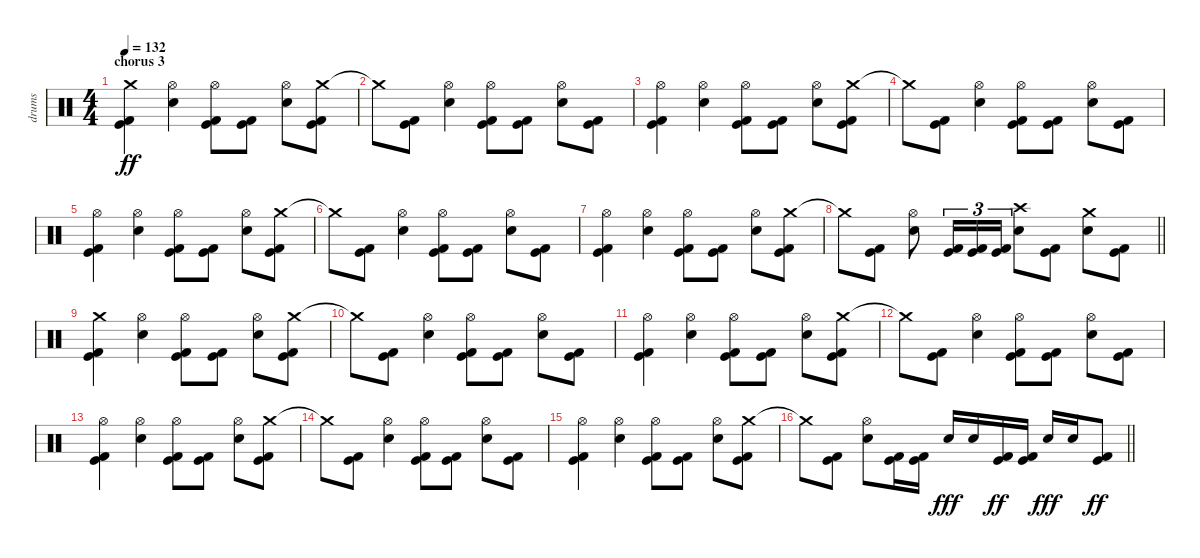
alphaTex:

\track ("drums" "drums") {instrument percussion}
\staff {score}
\articulation defaults
\ts (4 4)
\section ("" "chorus 3")
\tempo 132
\clef neutral
\ks c
("Crash medium (hit)" "Kick (hit)" "Kick (hit) 2").4{dy ff} ("Electric Snare (hit)" "Hi-Hat (open)").4 ("Hi-Hat (open)" "Kick (hit)" "Kick (hit) 2").8 ("Kick (hit)" "Kick (hit) 2").8 ("Electric Snare (hit)" "Hi-Hat (open)").8 ("Crash medium (hit)" "Kick (hit)" "Kick (hit) 2").8 |
"Crash medium (hit)"{t}.8 ("Kick (hit)" "Kick (hit) 2").8 ("Electric Snare (hit)" "Hi-Hat (open)").4 ("Hi-Hat (open)" "Kick (hit)" "Kick (hit) 2").8 ("Kick (hit)" "Kick (hit) 2").8 ("Electric Snare (hit)" "Hi-Hat (open)").8 ("Kick (hit)" "Kick (hit) 2").8 |
("Hi-Hat (open)" "Kick (hit)" "Kick (hit) 2").4 ("Electric Snare (hit)" "Hi-Hat (open)").4 ("Hi-Hat (open)" "Kick (hit)" "Kick (hit) 2").8 ("Kick (hit)" "Kick (hit) 2").8 ("Electric Snare (hit)" "Hi-Hat (open)").8 ("Crash medium (hit)" "Kick (hit)" "Kick (hit) 2").8 |
"Crash medium (hit)"{t}.8 ("Kick (hit)" "Kick (hit) 2").8 ("Electric Snare (hit)" "Hi-Hat (open)").4 ("Hi-Hat (open)" "Kick (hit)" "Kick (hit) 2").8 ("Kick (hit)" "Kick (hit) 2").8 ("Electric Snare (hit)" "Hi-Hat (open)").8 ("Kick (hit)" "Kick (hit) 2").8 |
("Hi-Hat (open)" "Kick (hit)" "Kick (hit) 2").4 ("Electric Snare (hit)" "Hi-Hat (open)").4 ("Hi-Hat (open)" "Kick (hit)" "Kick (hit) 2").8 ("Kick (hit)" "Kick (hit) 2").8 ("Electric Snare (hit)" "Hi-Hat (open)").8 ("Crash medium (hit)" "Kick (hit)" "Kick (hit) 2").8 |
"Crash medium (hit)"{t}.8 ("Kick (hit)" "Kick (hit) 2").8 ("Electric Snare (hit)" "Hi-Hat (open)").4 ("Hi-Hat (open)" "Kick (hit)" "Kick (hit) 2").8 ("Kick (hit)" "Kick (hit) 2").8 ("Electric Snare (hit)" "Hi-Hat (open)").8 ("Kick (hit)" "Kick (hit) 2").8 |
("Hi-Hat (open)" "Kick (hit)" "Kick (hit) 2").4 ("Electric Snare (hit)" "Hi-Hat (open)").4 ("Hi-Hat (open)" "Kick (hit)" "Kick (hit) 2").8 ("Kick (hit)" "Kick (hit) 2").8 ("Electric Snare (hit)" "Hi-Hat (open)").8 ("Crash medium (hit)" "Kick (hit)" "Kick (hit) 2").8 |
\barLineRight lightlight "Crash medium (hit)"{t}.8
("Kick (hit)" "Kick (hit) 2").8 ("Electric Snare (hit)" "Hi-Hat (open)").8 ("Kick (hit)" "Kick (hit) 2").16{tu (3 2)} ("Kick (hit)" "Kick (hit) 2").16{tu (3 2)} ("Kick (hit)" "Kick (hit) 2").16{tu (3 2)} ("Crash high (hit)" "Electric Snare (hit)").8 ("Kick (hit)" "Kick (hit) 2").8 ("Crash medium (hit)" "Electric Snare (hit)").8 ("Kick (hit)" "Kick (hit) 2").8 |
("Crash medium (hit)" "Kick (hit)" "Kick (hit) 2").4 ("Electric Snare (hit)" "Hi-Hat (open)").4 ("Hi-Hat (open)" "Kick (hit)" "Kick (hit) 2").8 ("Kick (hit)" "Kick (hit) 2").8 ("Electric Snare (hit)" "Hi-Hat (open)").8 ("Crash medium (hit)" "Kick (hit)" "Kick (hit) 2").8 |
"Crash medium (hit)"{t}.8 ("Kick (hit)" "Kick (hit) 2").8 ("Electric Snare (hit)" "Hi-Hat (open)").4 ("Hi-Hat (open)" "Kick (hit)" "Kick (hit) 2").8 ("Kick (hit)" "Kick (hit) 2").8 ("Electric Snare (hit)" "Hi-Hat (open)").8 ("Kick (hit)" "Kick (hit) 2").8 |
("Hi-Hat (open)" "Kick (hit)" "Kick (hit) 2").4 ("Electric Snare (hit)" "Hi-Hat (open)").4 ("Hi-Hat (open)" "Kick (hit)" "Kick (hit) 2").8 ("Kick (hit)" "Kick (hit) 2").8 ("Electric Snare (hit)" "Hi-Hat (open)").8 ("Crash medium (hit)" "Kick (hit)" "Kick (hit) 2").8 |
"Crash medium (hit)"{t}.8 ("Kick (hit)" "Kick (hit) 2").8 ("Electric Snare (hit)" "Hi-Hat (open)").4 ("Hi-Hat (open)" "Kick (hit)" "Kick (hit) 2").8 ("Kick (hit)" "Kick (hit) 2").8 ("Electric Snare (hit)" "Hi-Hat (open)").8 ("Kick (hit)" "Kick (hit) 2").8 |
("Hi-Hat (open)" "Kick (hit)" "Kick (hit) 2").4 ("Electric Snare (hit)" "Hi-Hat (open)").4 ("Hi-Hat (open)" "Kick (hit)" "Kick (hit) 2").8 ("Kick (hit)" "Kick (hit) 2").8 ("Electric Snare (hit)" "Hi-Hat (open)").8 ("Crash medium (hit)" "Kick (hit)" "Kick (hit) 2").8 |
"Crash medium (hit)"{t}.8 ("Kick (hit)" "Kick (hit) 2").8 ("Electric Snare (hit)" "Hi-Hat (open)").4 ("Hi-Hat (open)" "Kick (hit)" "Kick (hit) 2").8 ("Kick (hit)" "Kick (hit) 2").8 ("Electric Snare (hit)" "Hi-Hat (open)").8 ("Kick (hit)" "Kick (hit) 2").8 |
("Hi-Hat (open)" "Kick (hit)" "Kick (hit) 2").4 ("Electric Snare (hit)" "Hi-Hat (open)").4 ("Hi-Hat (open)" "Kick (hit)" "Kick (hit) 2").8 ("Kick (hit)" "Kick (hit) 2").8 ("Electric Snare (hit)" "Hi-Hat (open)").8 ("Crash medium (hit)" "Kick (hit)" "Kick (hit) 2").8 |
\barLineRight lightlight "Crash medium (hit)"{t}.8
("Kick (hit)" "Kick (hit) 2").8 ("Electric Snare (hit)" "Hi-Hat (open)").8 ("Kick (hit)" "Kick (hit) 2").16 ("Kick (hit)" "Kick (hit) 2").16 "Electric Snare (hit)".16{dy fff} "Electric Snare (hit)".16 ("Kick (hit)" "Kick (hit) 2").16{dy ff} ("Kick (hit)" "Kick (hit) 2").16 "Electric Snare (hit)".16{dy fff} "Electric Snare (hit)".16 ("Kick (hit)" "Kick (hit) 2").8{dy ff}
